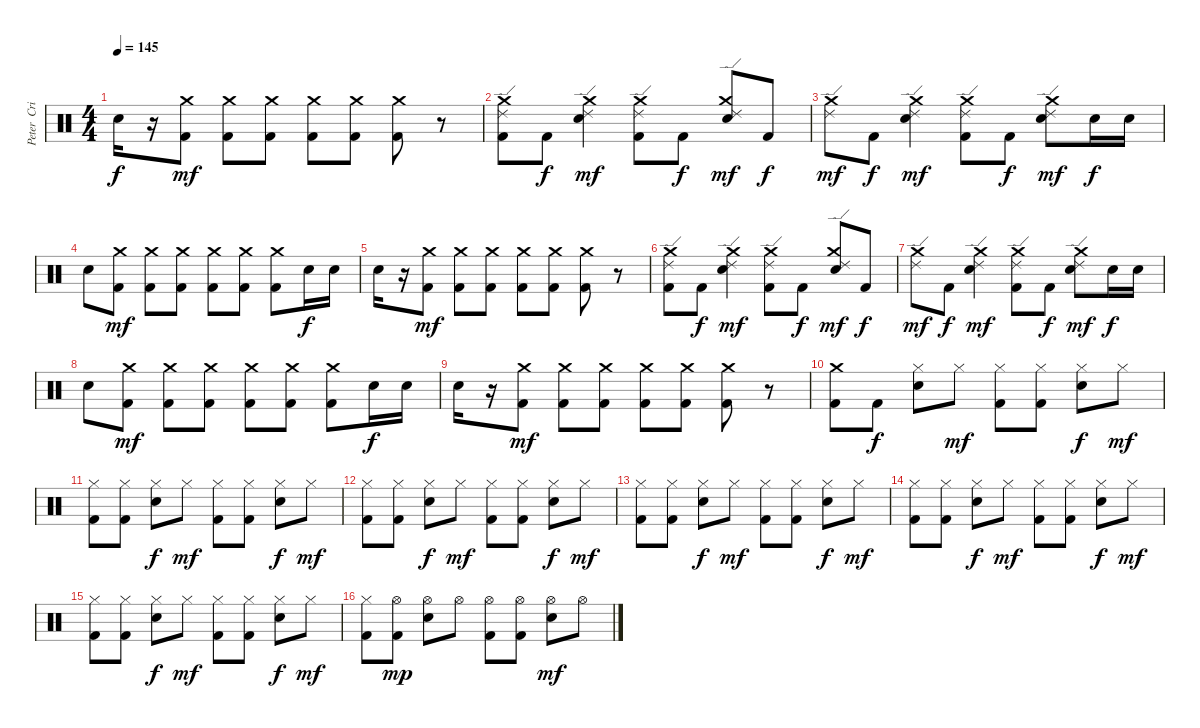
\track ("Peter  Criss [Drums]" "Peter  Cri") {instrument percussion}
\staff {score}
\articulation defaults
\ts (4 4)
\tempo 145
\clef neutral
\ks c "Electric Snare (hit)".16{dy f}
r.16 ("Crash medium (hit)" "Kick (hit) 2").8{dy mf} ("Crash medium (hit)" "Kick (hit) 2").8 ("Crash medium (hit)" "Kick (hit) 2").8 ("Crash medium (hit)" "Kick (hit) 2").8 ("Crash medium (hit)" "Kick (hit) 2").8 ("Crash medium (hit)" "Kick (hit) 2").8 r.8 |
("Crash medium (hit)" "Ride (edge) 2" "Kick (hit) 2").8 "Kick (hit) 2".8{dy f} ("Crash medium (hit)" "Ride (edge) 2" "Electric Snare (hit)").4{dy mf} ("Ride (edge) 2" "Crash medium (hit)" "Kick (hit) 2").8 "Kick (hit) 2".8{dy f} ("Ride (edge) 2" "Crash medium (hit)" "Electric Snare (hit)").8{dy mf} "Kick (hit) 2".8{dy f} |
("Crash medium (hit)" "Ride (edge) 2").8{dy mf} "Kick (hit) 2".8{dy f} ("Ride (edge) 2" "Crash medium (hit)" "Electric Snare (hit)").4{dy mf} ("Crash medium (hit)" "Ride (edge) 2" "Kick (hit) 2").8 "Kick (hit) 2".8{dy f} ("Crash medium (hit)" "Ride (edge) 2" "Electric Snare (hit)").8{dy mf} "Electric Snare (hit)".16{dy f} "Electric Snare (hit)".16 |
"Electric Snare (hit)".8 ("Crash medium (hit)" "Kick (hit) 2").8{dy mf} ("Crash medium (hit)" "Kick (hit) 2").8 ("Crash medium (hit)" "Kick (hit) 2").8 ("Crash medium (hit)" "Kick (hit) 2").8 ("Crash medium (hit)" "Kick (hit) 2").8 ("Crash medium (hit)" "Kick (hit) 2").8 "Electric Snare (hit)".16{dy f} "Electric Snare (hit)".16 |
"Electric Snare (hit)".16 r.16 ("Crash medium (hit)" "Kick (hit) 2").8{dy mf} ("Crash medium (hit)" "Kick (hit) 2").8 ("Crash medium (hit)" "Kick (hit) 2").8 ("Crash medium (hit)" "Kick (hit) 2").8 ("Crash medium (hit)" "Kick (hit) 2").8 ("Crash medium (hit)" "Kick (hit) 2").8 r.8 |
("Crash medium (hit)" "Ride (edge) 2" "Kick (hit) 2").8 "Kick (hit) 2".8{dy f} ("Crash medium (hit)" "Ride (edge) 2" "Electric Snare (hit)").4{dy mf} ("Ride (edge) 2" "Crash medium (hit)" "Kick (hit) 2").8 "Kick (hit) 2".8{dy f} ("Ride (edge) 2" "Crash medium (hit)" "Electric Snare (hit)").8{dy mf} "Kick (hit) 2".8{dy f} |
("Crash medium (hit)" "Ride (edge) 2").8{dy mf} "Kick (hit) 2".8{dy f} ("Ride (edge) 2" "Crash medium (hit)" "Electric Snare (hit)").4{dy mf} ("Crash medium (hit)" "Ride (edge) 2" "Kick (hit) 2").8 "Kick (hit) 2".8{dy f} ("Crash medium (hit)" "Ride (edge) 2" "Electric Snare (hit)").8{dy mf} "Electric Snare (hit)".16{dy f} "Electric Snare (hit)".16 |
"Electric Snare (hit)".8 ("Crash medium (hit)" "Kick (hit) 2").8{dy mf} ("Crash medium (hit)" "Kick (hit) 2").8 ("Crash medium (hit)" "Kick (hit) 2").8 ("Crash medium (hit)" "Kick (hit) 2").8 ("Crash medium (hit)" "Kick (hit) 2").8 ("Crash medium (hit)" "Kick (hit) 2").8 "Electric Snare (hit)".16{dy f} "Electric Snare (hit)".16 |
"Electric Snare (hit)".16 r.16 ("Crash medium (hit)" "Kick (hit) 2").8{dy mf} ("Crash medium (hit)" "Kick (hit) 2").8 ("Crash medium (hit)" "Kick (hit) 2").8 ("Crash medium (hit)" "Kick (hit) 2").8 ("Crash medium (hit)" "Kick (hit) 2").8 ("Crash medium (hit)" "Kick (hit) 2").8 r.8 |
("Crash medium (hit)" "Kick (hit) 2").8 "Kick (hit) 2".8{dy f} ("Hi-Hat (closed)" "Electric Snare (hit)").8 "Hi-Hat (closed)".8{dy mf} ("Hi-Hat (closed)" "Kick (hit) 2").8 ("Hi-Hat (closed)" "Kick (hit) 2").8 ("Hi-Hat (closed)" "Electric Snare (hit)").8{dy f} "Hi-Hat (closed)".8{dy mf} |
("Hi-Hat (closed)" "Kick (hit) 2").8 ("Hi-Hat (closed)" "Kick (hit) 2").8 ("Hi-Hat (closed)" "Electric Snare (hit)").8{dy f} "Hi-Hat (closed)".8{dy mf} ("Hi-Hat (closed)" "Kick (hit) 2").8 ("Hi-Hat (closed)" "Kick (hit) 2").8 ("Hi-Hat (closed)" "Electric Snare (hit)").8{dy f} "Hi-Hat (closed)".8{dy mf} |
("Hi-Hat (closed)" "Kick (hit) 2").8 ("Hi-Hat (closed)" "Kick (hit) 2").8 ("Hi-Hat (closed)" "Electric Snare (hit)").8{dy f} "Hi-Hat (closed)".8{dy mf} ("Hi-Hat (closed)" "Kick (hit) 2").8 ("Hi-Hat (closed)" "Kick (hit) 2").8 ("Hi-Hat (closed)" "Electric Snare (hit)").8{dy f} "Hi-Hat (closed)".8{dy mf} |
("Hi-Hat (closed)" "Kick (hit) 2").8 ("Hi-Hat (closed)" "Kick (hit) 2").8 ("Hi-Hat (closed)" "Electric Snare (hit)").8{dy f} "Hi-Hat (closed)".8{dy mf} ("Hi-Hat (closed)" "Kick (hit) 2").8 ("Hi-Hat (closed)" "Kick (hit) 2").8 ("Hi-Hat (closed)" "Electric Snare (hit)").8{dy f} "Hi-Hat (closed)".8{dy mf} |
("Hi-Hat (closed)" "Kick (hit) 2").8 ("Hi-Hat (closed)" "Kick (hit) 2").8 ("Hi-Hat (closed)" "Electric Snare (hit)").8{dy f} "Hi-Hat (closed)".8{dy mf} ("Hi-Hat (closed)" "Kick (hit) 2").8 ("Hi-Hat (closed)" "Kick (hit) 2").8 ("Hi-Hat (closed)" "Electric Snare (hit)").8{dy f} "Hi-Hat (closed)".8{dy mf} |
("Hi-Hat (closed)" "Kick (hit) 2").8 ("Hi-Hat (closed)" "Kick (hit) 2").8 ("Hi-Hat (closed)" "Electric Snare (hit)").8{dy f} "Hi-Hat (closed)".8{dy mf} ("Hi-Hat (closed)" "Kick (hit) 2").8 ("Hi-Hat (closed)" "Kick (hit) 2").8 ("Hi-Hat (closed)" "Electric Snare (hit)").8{dy f} "Hi-Hat (closed)".8{dy mf} |
("Hi-Hat (closed)" "Kick (hit) 2").8 ("Hi-Hat (open)" "Kick (hit) 2").8{dy mp} ("Hi-Hat (open)" "Electric Snare (hit)").8 "Hi-Hat (open)".8 ("Hi-Hat (open)" "Kick (hit) 2").8 ("Hi-Hat (open)" "Kick (hit) 2").8 ("Hi-Hat (open)" "Electric Snare (hit)").8{dy mf} "Hi-Hat (open)".8
